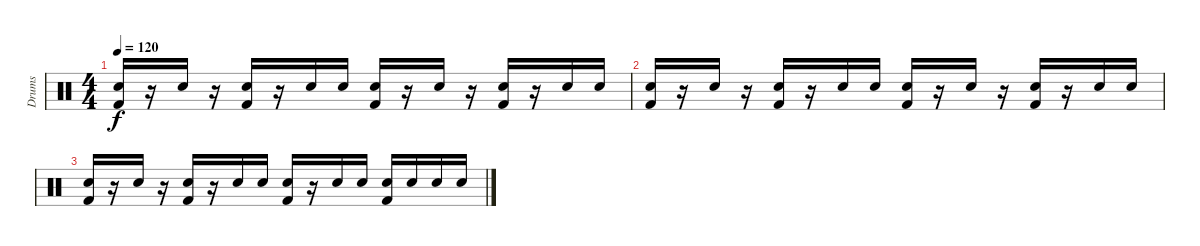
\track ("Drums" "Drums") {instrument percussion}
\staff {score}
\articulation defaults
\ts (4 4)
\tempo 120
\clef neutral
\ks c
("Electric Snare (hit)" "Kick (hit) 2").16{dy f} r.16 "Electric Snare (hit)".16 r.16 ("Electric Snare (hit)" "Kick (hit) 2").16 r.16 "Electric Snare (hit)".16 "Electric Snare (hit)".16 ("Electric Snare (hit)" "Kick (hit) 2").16 r.16 "Electric Snare (hit)".16 r.16 ("Electric Snare (hit)" "Kick (hit) 2").16 r.16 "Electric Snare (hit)".16 "Electric Snare (hit)".16 |
("Electric Snare (hit)" "Kick (hit) 2").16 r.16 "Electric Snare (hit)".16 r.16 ("Electric Snare (hit)" "Kick (hit) 2").16 r.16 "Electric Snare (hit)".16 "Electric Snare (hit)".16 ("Electric Snare (hit)" "Kick (hit) 2").16 r.16 "Electric Snare (hit)".16 r.16 ("Electric Snare (hit)" "Kick (hit) 2").16 r.16 "Electric Snare (hit)".16 "Electric Snare (hit)".16 |
("Electric Snare (hit)" "Kick (hit) 2").16 r.16 "Electric Snare (hit)".16 r.16 ("Electric Snare (hit)" "Kick (hit) 2").16 r.16 "Electric Snare (hit)".16 "Electric Snare (hit)".16 ("Electric Snare (hit)" "Kick (hit) 2").16 r.16 "Electric Snare (hit)".16 "Electric Snare (hit)".16 ("Electric Snare (hit)" "Kick (hit) 2").16 "Electric Snare (hit)".16 "Electric Snare (hit)".16 "Electric Snare (hit)".16
